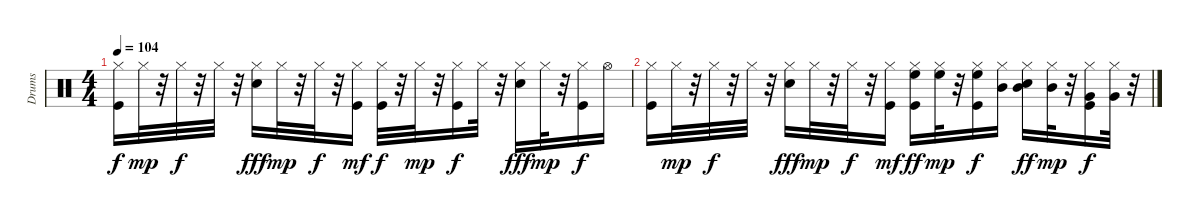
\track ("Drums   " "Drums   ") {instrument percussion}
\staff {score}
\articulation defaults
\ts (4 4)
\tempo 104
\clef neutral
\ks c
("Kick (hit)" "Hi-Hat (closed)").16{dy f} "Hi-Hat (closed)".32{dy mp} r.32 "Hi-Hat (closed)".32{dy f} r.32 "Hi-Hat (closed)".32 r.32 ("Electric Snare (hit)" "Hi-Hat (closed)").16{dy fff} "Hi-Hat (closed)".32{dy mp} r.32 "Hi-Hat (closed)".32{dy f} r.32 ("Kick (hit)" "Hi-Hat (closed)").16{dy mf} ("Kick (hit)" "Hi-Hat (closed)").32{dy f} r.32 "Hi-Hat (closed)".32{dy mp} r.32 ("Kick (hit)" "Hi-Hat (closed)").16{dy f} "Hi-Hat (closed)".32 r.32 ("Electric Snare (hit)" "Hi-Hat (closed)").16{dy fff} "Hi-Hat (closed)".32{dy mp} r.32 ("Kick (hit)" "Hi-Hat (closed)").16{dy f} "Hi-Hat (open)".16 |
("Kick (hit)" "Hi-Hat (closed)").16 "Hi-Hat (closed)".32{dy mp} r.32 "Hi-Hat (closed)".32{dy f} r.32 "Hi-Hat (closed)".32 r.32 ("Electric Snare (hit)" "Hi-Hat (closed)").16{dy fff} "Hi-Hat (closed)".32{dy mp} r.32 "Hi-Hat (closed)".32{dy f} r.32 ("Kick (hit)" "Hi-Hat (closed)").16{dy mf} ("Kick (hit)" "Hi-Hat (closed)" "High Floor Tom (hit)").16{dy ff} ("Hi-Hat (closed)" "High Floor Tom (hit)").32{dy mp} r.32 ("Kick (hit)" "Hi-Hat (closed)" "High Floor Tom (hit)").16{dy f} ("Hi-Hat (closed)" "Mid Tom (hit)").16 ("Electric Snare (hit)" "Hi-Hat (closed)" "Mid Tom (hit)").16{dy ff} ("Hi-Hat (closed)" "Mid Tom (hit)").32{dy mp} r.32 ("Kick (hit)" "Hi-Hat (closed)" "Very Low Tom (hit)").16{dy f} ("Hi-Hat (closed)" "Very Low Tom (hit)").32 r.32
